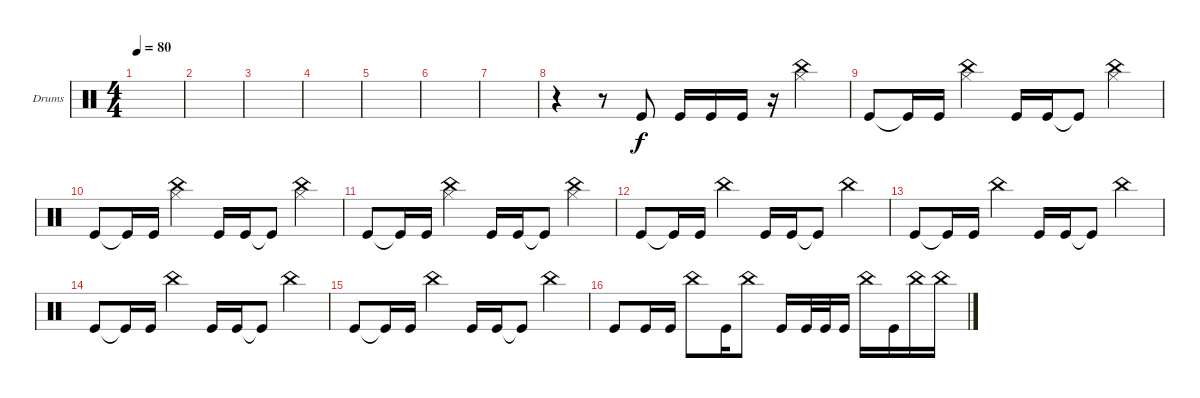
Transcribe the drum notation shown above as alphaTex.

\defaultSystemsLayout 4
\bracketExtendMode groupsimilarinstruments
\firstSystemTrackNameOrientation horizontal
\otherSystemsTrackNameOrientation horizontal
\track ("Drumkit" "Drums") {instrument percussion}
\staff {score}
\articulation defaults
\ts (4 4)
\tempo 80
\clef neutral
\scale
0.472222
\ks c
|
\scale
0.263889 |
\scale
0.263889 |
\scale
0.333333 |
\scale
0.333333 |
\scale
0.333333 |
\scale
0.333333 |
\scale
0.333333 r.4 r.8 "Kick (hit)".8 "Kick (hit)".16 "Kick (hit)".16 "Kick (hit)".16 r.16 ("China (hit)" "Hi-Hat (closed)").4 |
\scale
0.333333 "Kick (hit)".8 "Kick (hit)"{t}.16 "Kick (hit)".16 ("China (hit)" "Hi-Hat (closed)").4 "Kick (hit)".16 "Kick (hit)".16 "Kick (hit)"{t}.8 ("China (hit)" "Hi-Hat (closed)").4 |
\scale
0.333333 "Kick (hit)".8 "Kick (hit)"{t}.16 "Kick (hit)".16 ("China (hit)" "Hi-Hat (closed)").4 "Kick (hit)".16 "Kick (hit)".16 "Kick (hit)"{t}.8 ("China (hit)" "Hi-Hat (closed)").4 |
\scale
0.333333 "Kick (hit)".8 "Kick (hit)"{t}.16 "Kick (hit)".16 ("China (hit)" "Hi-Hat (closed)").4 "Kick (hit)".16 "Kick (hit)".16 "Kick (hit)"{t}.8 ("China (hit)" "Hi-Hat (closed)").4 |
\scale
0.333333 "Kick (hit)".8 "Kick (hit)"{t}.16 "Kick (hit)".16 "China (hit)".4 "Kick (hit)".16 "Kick (hit)".16 "Kick (hit)"{t}.8 "China (hit)".4 |
\scale
0.333333 "Kick (hit)".8 "Kick (hit)"{t}.16 "Kick (hit)".16 "China (hit)".4 "Kick (hit)".16 "Kick (hit)".16 "Kick (hit)"{t}.8 "China (hit)".4 |
\scale
0.333333 "Kick (hit)".8 "Kick (hit)"{t}.16 "Kick (hit)".16 "China (hit)".4 "Kick (hit)".16 "Kick (hit)".16 "Kick (hit)"{t}.8 "China (hit)".4 |
\scale
0.333333 "Kick (hit)".8 "Kick (hit)"{t}.16 "Kick (hit)".16 "China (hit)".4 "Kick (hit)".16 "Kick (hit)".16 "Kick (hit)"{t}.8 "China (hit)".4 |
\scale
0.333333 "Kick (hit)".8 "Kick (hit)".16 "Kick (hit)".16 "China (hit)".8 "Kick (hit)".16 "China (hit)".8 "Kick (hit)".16 "Kick (hit)".32 "Kick (hit)".32 "Kick (hit)".16 "China (hit)".16 "Kick (hit)".16 "China (hit)".16 "China (hit)".16
